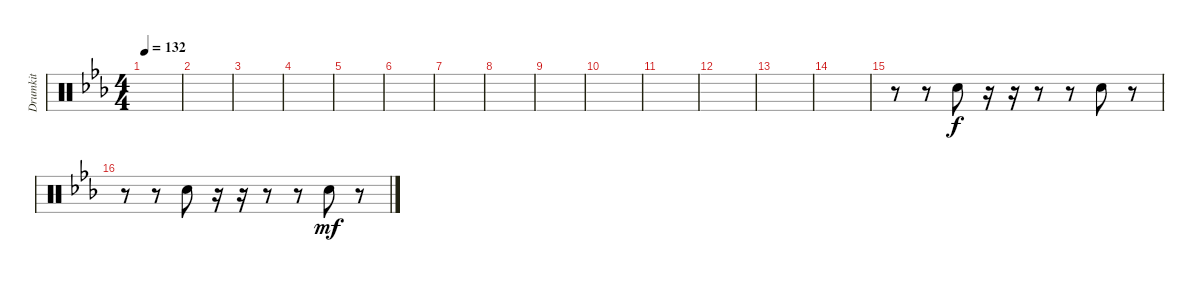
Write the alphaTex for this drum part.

\track ("Drumkit" "Drumkit") {instrument percussion}
\staff {score}
\articulation defaults
\ts (4 4)
\tempo 132
\clef neutral
\ks eb
|
|
|
|
|
|
|
|
|
|
|
|
|
|
r.8 r.8 "Snare (hit) 2".8 r.16 r.16 r.8 r.8 "Snare (hit) 2".8 r.8 |
r.8 r.8 "Snare (hit) 2".8{dy f} r.16 r.16 r.8 r.8 "Snare (hit) 2".8{dy mf} r.8
